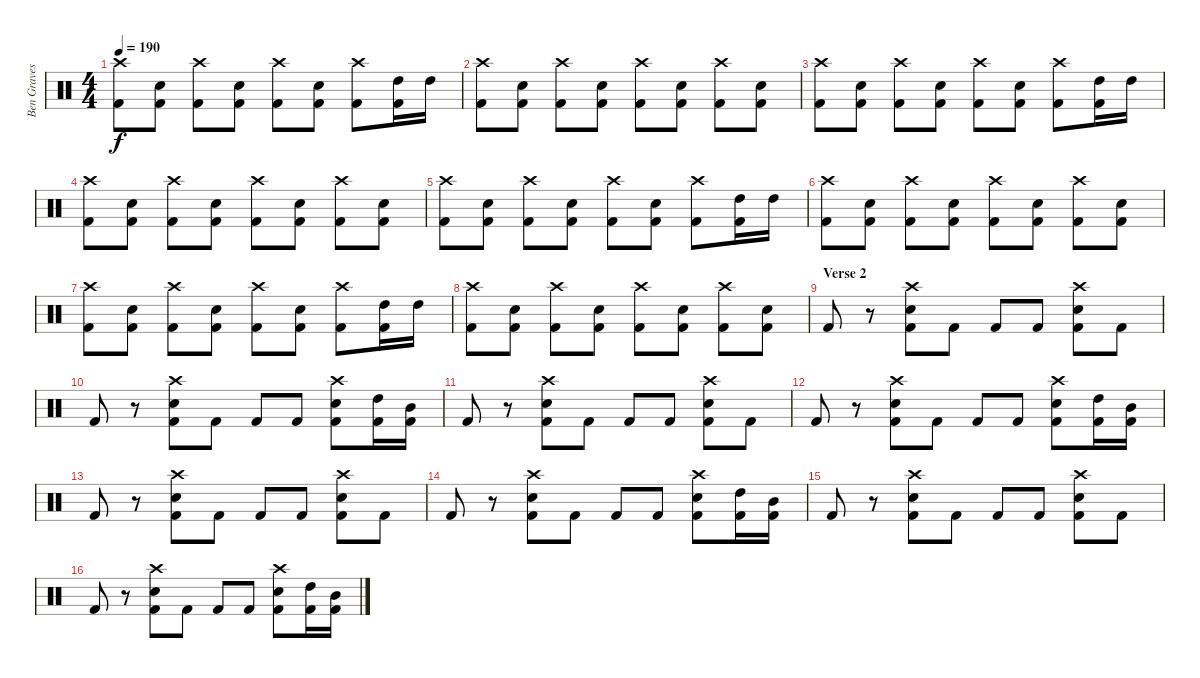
\track ("Ben Graves" "Ben Graves") {instrument percussion}
\staff {score}
\articulation defaults
\ts (4 4)
\tempo 190
\clef neutral
\ks c
("Crash high (hit)" "Kick (hit) 2").8{dy f} ("Electric Snare (hit)" "Kick (hit) 2").8 ("Crash high (hit)" "Kick (hit) 2").8 ("Electric Snare (hit)" "Kick (hit) 2").8 ("Crash high (hit)" "Kick (hit) 2").8 ("Electric Snare (hit)" "Kick (hit) 2").8 ("Crash high (hit)" "Kick (hit) 2").8 ("High Tom (hit)" "Kick (hit) 2").16 "High Tom (hit)".16 |
("Crash high (hit)" "Kick (hit) 2").8 ("Electric Snare (hit)" "Kick (hit) 2").8 ("Crash high (hit)" "Kick (hit) 2").8 ("Electric Snare (hit)" "Kick (hit) 2").8 ("Crash high (hit)" "Kick (hit) 2").8 ("Electric Snare (hit)" "Kick (hit) 2").8 ("Crash high (hit)" "Kick (hit) 2").8 ("Electric Snare (hit)" "Kick (hit) 2").8 |
("Crash high (hit)" "Kick (hit) 2").8 ("Electric Snare (hit)" "Kick (hit) 2").8 ("Crash high (hit)" "Kick (hit) 2").8 ("Electric Snare (hit)" "Kick (hit) 2").8 ("Crash high (hit)" "Kick (hit) 2").8 ("Electric Snare (hit)" "Kick (hit) 2").8 ("Crash high (hit)" "Kick (hit) 2").8 ("High Tom (hit)" "Kick (hit) 2").16 "High Tom (hit)".16 |
("Crash high (hit)" "Kick (hit) 2").8 ("Electric Snare (hit)" "Kick (hit) 2").8 ("Crash high (hit)" "Kick (hit) 2").8 ("Electric Snare (hit)" "Kick (hit) 2").8 ("Crash high (hit)" "Kick (hit) 2").8 ("Electric Snare (hit)" "Kick (hit) 2").8 ("Crash high (hit)" "Kick (hit) 2").8 ("Electric Snare (hit)" "Kick (hit) 2").8 |
("Crash high (hit)" "Kick (hit) 2").8 ("Electric Snare (hit)" "Kick (hit) 2").8 ("Crash high (hit)" "Kick (hit) 2").8 ("Electric Snare (hit)" "Kick (hit) 2").8 ("Crash high (hit)" "Kick (hit) 2").8 ("Electric Snare (hit)" "Kick (hit) 2").8 ("Crash high (hit)" "Kick (hit) 2").8 ("High Tom (hit)" "Kick (hit) 2").16 "High Tom (hit)".16 |
("Crash high (hit)" "Kick (hit) 2").8 ("Electric Snare (hit)" "Kick (hit) 2").8 ("Crash high (hit)" "Kick (hit) 2").8 ("Electric Snare (hit)" "Kick (hit) 2").8 ("Crash high (hit)" "Kick (hit) 2").8 ("Electric Snare (hit)" "Kick (hit) 2").8 ("Crash high (hit)" "Kick (hit) 2").8 ("Electric Snare (hit)" "Kick (hit) 2").8 |
("Crash high (hit)" "Kick (hit) 2").8 ("Electric Snare (hit)" "Kick (hit) 2").8 ("Crash high (hit)" "Kick (hit) 2").8 ("Electric Snare (hit)" "Kick (hit) 2").8 ("Crash high (hit)" "Kick (hit) 2").8 ("Electric Snare (hit)" "Kick (hit) 2").8 ("Crash high (hit)" "Kick (hit) 2").8 ("High Tom (hit)" "Kick (hit) 2").16 "High Tom (hit)".16 |
("Crash high (hit)" "Kick (hit) 2").8 ("Electric Snare (hit)" "Kick (hit) 2").8 ("Crash high (hit)" "Kick (hit) 2").8 ("Electric Snare (hit)" "Kick (hit) 2").8 ("Crash high (hit)" "Kick (hit) 2").8 ("Electric Snare (hit)" "Kick (hit) 2").8 ("Crash high (hit)" "Kick (hit) 2").8 ("Electric Snare (hit)" "Kick (hit) 2").8 |
\section ("" "Verse 2")
"Kick (hit) 2".8 r.8 ("Crash high (hit)" "Electric Snare (hit)" "Kick (hit) 2").8 "Kick (hit) 2".8 "Kick (hit) 2".8 "Kick (hit) 2".8 ("Crash high (hit)" "Electric Snare (hit)" "Kick (hit) 2").8 "Kick (hit) 2".8 |
"Kick (hit) 2".8 r.8 ("Crash high (hit)" "Electric Snare (hit)" "Kick (hit) 2").8 "Kick (hit) 2".8 "Kick (hit) 2".8 "Kick (hit) 2".8 ("Crash high (hit)" "Electric Snare (hit)" "Kick (hit) 2").8 ("High Tom (hit)" "Kick (hit) 2").16 ("Mid Tom (hit)" "Kick (hit) 2").16 |
"Kick (hit) 2".8 r.8 ("Crash high (hit)" "Electric Snare (hit)" "Kick (hit) 2").8 "Kick (hit) 2".8 "Kick (hit) 2".8 "Kick (hit) 2".8 ("Crash high (hit)" "Electric Snare (hit)" "Kick (hit) 2").8 "Kick (hit) 2".8 |
"Kick (hit) 2".8 r.8 ("Crash high (hit)" "Electric Snare (hit)" "Kick (hit) 2").8 "Kick (hit) 2".8 "Kick (hit) 2".8 "Kick (hit) 2".8 ("Crash high (hit)" "Electric Snare (hit)" "Kick (hit) 2").8 ("High Tom (hit)" "Kick (hit) 2").16 ("Mid Tom (hit)" "Kick (hit) 2").16 |
"Kick (hit) 2".8 r.8 ("Crash high (hit)" "Electric Snare (hit)" "Kick (hit) 2").8 "Kick (hit) 2".8 "Kick (hit) 2".8 "Kick (hit) 2".8 ("Crash high (hit)" "Electric Snare (hit)" "Kick (hit) 2").8 "Kick (hit) 2".8 |
"Kick (hit) 2".8 r.8 ("Crash high (hit)" "Electric Snare (hit)" "Kick (hit) 2").8 "Kick (hit) 2".8 "Kick (hit) 2".8 "Kick (hit) 2".8 ("Crash high (hit)" "Electric Snare (hit)" "Kick (hit) 2").8 ("High Tom (hit)" "Kick (hit) 2").16 ("Mid Tom (hit)" "Kick (hit) 2").16 |
"Kick (hit) 2".8 r.8 ("Crash high (hit)" "Electric Snare (hit)" "Kick (hit) 2").8 "Kick (hit) 2".8 "Kick (hit) 2".8 "Kick (hit) 2".8 ("Crash high (hit)" "Electric Snare (hit)" "Kick (hit) 2").8 "Kick (hit) 2".8 |
"Kick (hit) 2".8 r.8 ("Crash high (hit)" "Electric Snare (hit)" "Kick (hit) 2").8 "Kick (hit) 2".8 "Kick (hit) 2".8 "Kick (hit) 2".8 ("Crash high (hit)" "Electric Snare (hit)" "Kick (hit) 2").8 ("High Tom (hit)" "Kick (hit) 2").16 ("Mid Tom (hit)" "Kick (hit) 2").16
